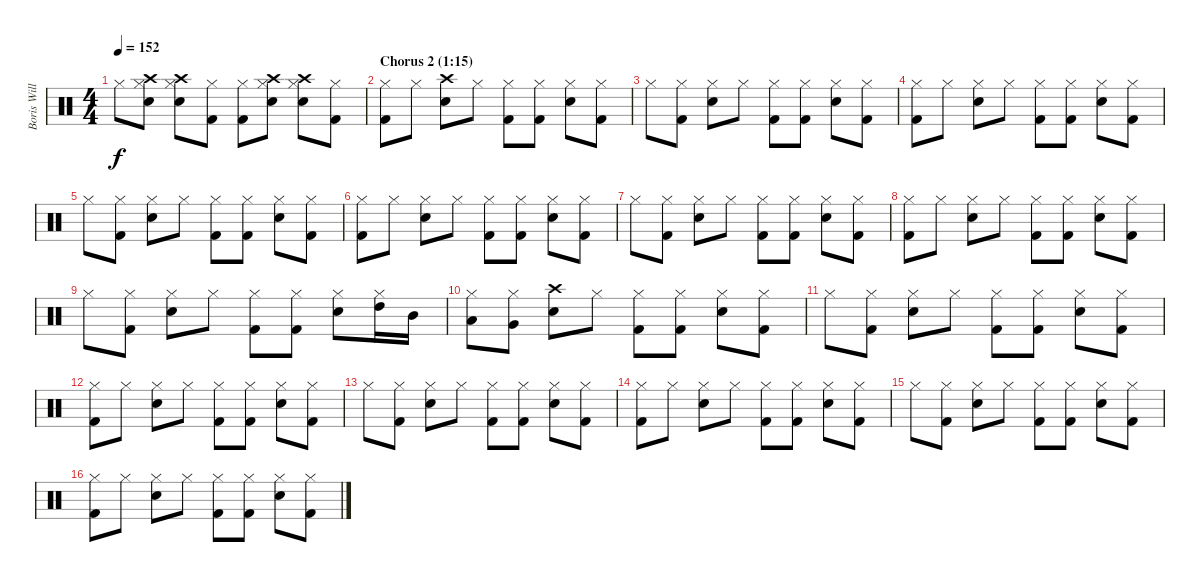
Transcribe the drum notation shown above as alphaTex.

\track ("Boris Williams (drums)" "Boris Will") {instrument percussion}
\staff {score}
\articulation defaults
\ts (4 4)
\tempo 152
\clef neutral
\ks c "Hi-Hat (closed)".8{dy f}
("Crash high (hit)" "Snare (hit) 2" "Hi-Hat (closed)").8 ("Crash high (hit)" "Snare (hit) 2" "Hi-Hat (closed)").8 ("Kick (hit) 2" "Hi-Hat (closed)").8 ("Kick (hit) 2" "Hi-Hat (closed)").8 ("Crash high (hit)" "Snare (hit) 2" "Hi-Hat (closed)").8 ("Crash high (hit)" "Snare (hit) 2" "Hi-Hat (closed)").8 ("Kick (hit) 2" "Hi-Hat (closed)").8 |
\section ("" "Chorus 2 (1:15)")
("Kick (hit) 2" "Hi-Hat (closed)").8 "Hi-Hat (closed)".8 ("Snare (hit) 2" "Crash high (hit)").8 "Hi-Hat (closed)".8 ("Kick (hit) 2" "Hi-Hat (closed)").8 ("Kick (hit) 2" "Hi-Hat (closed)").8 ("Snare (hit) 2" "Hi-Hat (closed)").8 ("Kick (hit) 2" "Hi-Hat (closed)").8 |
"Hi-Hat (closed)".8 ("Kick (hit) 2" "Hi-Hat (closed)").8 ("Snare (hit) 2" "Hi-Hat (closed)").8 "Hi-Hat (closed)".8 ("Kick (hit) 2" "Hi-Hat (closed)").8 ("Kick (hit) 2" "Hi-Hat (closed)").8 ("Snare (hit) 2" "Hi-Hat (closed)").8 ("Kick (hit) 2" "Hi-Hat (closed)").8 |
("Kick (hit) 2" "Hi-Hat (closed)").8 "Hi-Hat (closed)".8 ("Snare (hit) 2" "Hi-Hat (closed)").8 "Hi-Hat (closed)".8 ("Kick (hit) 2" "Hi-Hat (closed)").8 ("Kick (hit) 2" "Hi-Hat (closed)").8 ("Snare (hit) 2" "Hi-Hat (closed)").8 ("Kick (hit) 2" "Hi-Hat (closed)").8 |
"Hi-Hat (closed)".8 ("Kick (hit) 2" "Hi-Hat (closed)").8 ("Snare (hit) 2" "Hi-Hat (closed)").8 "Hi-Hat (closed)".8 ("Kick (hit) 2" "Hi-Hat (closed)").8 ("Kick (hit) 2" "Hi-Hat (closed)").8 ("Snare (hit) 2" "Hi-Hat (closed)").8 ("Kick (hit) 2" "Hi-Hat (closed)").8 |
("Kick (hit) 2" "Hi-Hat (closed)").8 "Hi-Hat (closed)".8 ("Snare (hit) 2" "Hi-Hat (closed)").8 "Hi-Hat (closed)".8 ("Kick (hit) 2" "Hi-Hat (closed)").8 ("Kick (hit) 2" "Hi-Hat (closed)").8 ("Snare (hit) 2" "Hi-Hat (closed)").8 ("Kick (hit) 2" "Hi-Hat (closed)").8 |
"Hi-Hat (closed)".8 ("Kick (hit) 2" "Hi-Hat (closed)").8 ("Snare (hit) 2" "Hi-Hat (closed)").8 "Hi-Hat (closed)".8 ("Kick (hit) 2" "Hi-Hat (closed)").8 ("Kick (hit) 2" "Hi-Hat (closed)").8 ("Snare (hit) 2" "Hi-Hat (closed)").8 ("Kick (hit) 2" "Hi-Hat (closed)").8 |
("Kick (hit) 2" "Hi-Hat (closed)").8 "Hi-Hat (closed)".8 ("Snare (hit) 2" "Hi-Hat (closed)").8 "Hi-Hat (closed)".8 ("Kick (hit) 2" "Hi-Hat (closed)").8 ("Kick (hit) 2" "Hi-Hat (closed)").8 ("Snare (hit) 2" "Hi-Hat (closed)").8 ("Kick (hit) 2" "Hi-Hat (closed)").8 |
"Hi-Hat (closed)".8 ("Kick (hit) 2" "Hi-Hat (closed)").8 ("Snare (hit) 2" "Hi-Hat (closed)").8 "Hi-Hat (closed)".8 ("Kick (hit) 2" "Hi-Hat (closed)").8 ("Kick (hit) 2" "Hi-Hat (closed)").8 ("Snare (hit) 2" "Hi-Hat (closed)").8 ("High Tom (hit)" "Hi-Hat (closed)").16 "Mid Tom (hit)".16 |
("Low Tom (hit)" "Hi-Hat (closed)").8 ("Very Low Tom (hit)" "Hi-Hat (closed)").8 ("Snare (hit) 2" "Crash high (hit)").8 "Hi-Hat (closed)".8 ("Kick (hit) 2" "Hi-Hat (closed)").8 ("Kick (hit) 2" "Hi-Hat (closed)").8 ("Snare (hit) 2" "Hi-Hat (closed)").8 ("Kick (hit) 2" "Hi-Hat (closed)").8 |
"Hi-Hat (closed)".8 ("Kick (hit) 2" "Hi-Hat (closed)").8 ("Snare (hit) 2" "Hi-Hat (closed)").8 "Hi-Hat (closed)".8 ("Kick (hit) 2" "Hi-Hat (closed)").8 ("Kick (hit) 2" "Hi-Hat (closed)").8 ("Snare (hit) 2" "Hi-Hat (closed)").8 ("Kick (hit) 2" "Hi-Hat (closed)").8 |
("Kick (hit) 2" "Hi-Hat (closed)").8 "Hi-Hat (closed)".8 ("Snare (hit) 2" "Hi-Hat (closed)").8 "Hi-Hat (closed)".8 ("Kick (hit) 2" "Hi-Hat (closed)").8 ("Kick (hit) 2" "Hi-Hat (closed)").8 ("Snare (hit) 2" "Hi-Hat (closed)").8 ("Kick (hit) 2" "Hi-Hat (closed)").8 |
"Hi-Hat (closed)".8 ("Kick (hit) 2" "Hi-Hat (closed)").8 ("Snare (hit) 2" "Hi-Hat (closed)").8 "Hi-Hat (closed)".8 ("Kick (hit) 2" "Hi-Hat (closed)").8 ("Kick (hit) 2" "Hi-Hat (closed)").8 ("Snare (hit) 2" "Hi-Hat (closed)").8 ("Kick (hit) 2" "Hi-Hat (closed)").8 |
("Kick (hit) 2" "Hi-Hat (closed)").8 "Hi-Hat (closed)".8 ("Snare (hit) 2" "Hi-Hat (closed)").8 "Hi-Hat (closed)".8 ("Kick (hit) 2" "Hi-Hat (closed)").8 ("Kick (hit) 2" "Hi-Hat (closed)").8 ("Snare (hit) 2" "Hi-Hat (closed)").8 ("Kick (hit) 2" "Hi-Hat (closed)").8 |
"Hi-Hat (closed)".8 ("Kick (hit) 2" "Hi-Hat (closed)").8 ("Snare (hit) 2" "Hi-Hat (closed)").8 "Hi-Hat (closed)".8 ("Kick (hit) 2" "Hi-Hat (closed)").8 ("Kick (hit) 2" "Hi-Hat (closed)").8 ("Snare (hit) 2" "Hi-Hat (closed)").8 ("Kick (hit) 2" "Hi-Hat (closed)").8 |
("Kick (hit) 2" "Hi-Hat (closed)").8 "Hi-Hat (closed)".8 ("Snare (hit) 2" "Hi-Hat (closed)").8 "Hi-Hat (closed)".8 ("Kick (hit) 2" "Hi-Hat (closed)").8 ("Kick (hit) 2" "Hi-Hat (closed)").8 ("Snare (hit) 2" "Hi-Hat (closed)").8 ("Kick (hit) 2" "Hi-Hat (closed)").8
